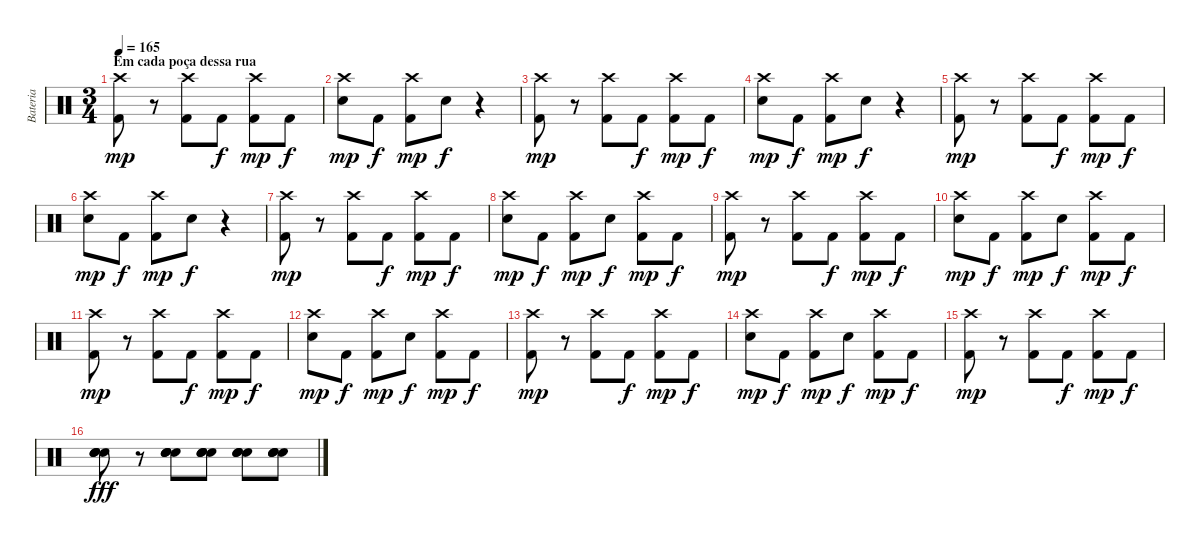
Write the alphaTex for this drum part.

\track ("Bateria" "Bateria") {instrument percussion}
\staff {score}
\articulation defaults
\ts (3 4)
\section ("" "Em cada poça dessa rua")
\tempo 165
\clef neutral
\ks c
("Crash high (hit)" "Kick (hit) 2").8{dy mp} r.8 ("Crash high (hit)" "Kick (hit) 2").8 "Kick (hit) 2".8{dy f} ("Crash high (hit)" "Kick (hit) 2").8{dy mp} "Kick (hit) 2".8{dy f} |
("Crash high (hit)" "Electric Snare (hit)").8{dy mp} "Kick (hit) 2".8{dy f} ("Crash high (hit)" "Kick (hit) 2").8{dy mp} "Electric Snare (hit)".8{dy f} r.4 |
("Crash high (hit)" "Kick (hit) 2").8{dy mp} r.8 ("Crash high (hit)" "Kick (hit) 2").8 "Kick (hit) 2".8{dy f} ("Crash high (hit)" "Kick (hit) 2").8{dy mp} "Kick (hit) 2".8{dy f} |
("Crash high (hit)" "Electric Snare (hit)").8{dy mp} "Kick (hit) 2".8{dy f} ("Crash high (hit)" "Kick (hit) 2").8{dy mp} "Electric Snare (hit)".8{dy f} r.4 |
("Crash high (hit)" "Kick (hit) 2").8{dy mp} r.8 ("Crash high (hit)" "Kick (hit) 2").8 "Kick (hit) 2".8{dy f} ("Crash high (hit)" "Kick (hit) 2").8{dy mp} "Kick (hit) 2".8{dy f} |
("Crash high (hit)" "Electric Snare (hit)").8{dy mp} "Kick (hit) 2".8{dy f} ("Crash high (hit)" "Kick (hit) 2").8{dy mp} "Electric Snare (hit)".8{dy f} r.4 |
("Crash high (hit)" "Kick (hit) 2").8{dy mp} r.8 ("Crash high (hit)" "Kick (hit) 2").8 "Kick (hit) 2".8{dy f} ("Crash high (hit)" "Kick (hit) 2").8{dy mp} "Kick (hit) 2".8{dy f} |
("Crash high (hit)" "Electric Snare (hit)").8{dy mp} "Kick (hit) 2".8{dy f} ("Crash high (hit)" "Kick (hit) 2").8{dy mp} "Electric Snare (hit)".8{dy f} ("Crash high (hit)" "Kick (hit) 2").8{dy mp} "Kick (hit) 2".8{dy f} |
("Crash high (hit)" "Kick (hit) 2").8{dy mp} r.8 ("Crash high (hit)" "Kick (hit) 2").8 "Kick (hit) 2".8{dy f} ("Crash high (hit)" "Kick (hit) 2").8{dy mp} "Kick (hit) 2".8{dy f} |
("Crash high (hit)" "Electric Snare (hit)").8{dy mp} "Kick (hit) 2".8{dy f} ("Crash high (hit)" "Kick (hit) 2").8{dy mp} "Electric Snare (hit)".8{dy f} ("Crash high (hit)" "Kick (hit) 2").8{dy mp} "Kick (hit) 2".8{dy f} |
("Crash high (hit)" "Kick (hit) 2").8{dy mp} r.8 ("Crash high (hit)" "Kick (hit) 2").8 "Kick (hit) 2".8{dy f} ("Crash high (hit)" "Kick (hit) 2").8{dy mp} "Kick (hit) 2".8{dy f} |
("Crash high (hit)" "Electric Snare (hit)").8{dy mp} "Kick (hit) 2".8{dy f} ("Crash high (hit)" "Kick (hit) 2").8{dy mp} "Electric Snare (hit)".8{dy f} ("Crash high (hit)" "Kick (hit) 2").8{dy mp} "Kick (hit) 2".8{dy f} |
("Crash high (hit)" "Kick (hit) 2").8{dy mp} r.8 ("Crash high (hit)" "Kick (hit) 2").8 "Kick (hit) 2".8{dy f} ("Crash high (hit)" "Kick (hit) 2").8{dy mp} "Kick (hit) 2".8{dy f} |
("Crash high (hit)" "Electric Snare (hit)").8{dy mp} "Kick (hit) 2".8{dy f} ("Crash high (hit)" "Kick (hit) 2").8{dy mp} "Electric Snare (hit)".8{dy f} ("Crash high (hit)" "Kick (hit) 2").8{dy mp} "Kick (hit) 2".8{dy f} |
("Crash high (hit)" "Kick (hit) 2").8{dy mp} r.8 ("Crash high (hit)" "Kick (hit) 2").8 "Kick (hit) 2".8{dy f} ("Crash high (hit)" "Kick (hit) 2").8{dy mp} "Kick (hit) 2".8{dy f} |
("Electric Snare (hit)" "Electric Snare (hit)" "Electric Snare (hit)" "Electric Snare (hit)").8{dy fff} r.8 ("Electric Snare (hit)" "Electric Snare (hit)" "Electric Snare (hit)" "Electric Snare (hit)").8 ("Electric Snare (hit)" "Electric Snare (hit)" "Electric Snare (hit)" "Electric Snare (hit)").8 ("Electric Snare (hit)" "Electric Snare (hit)" "Electric Snare (hit)" "Electric Snare (hit)").8 ("Electric Snare (hit)" "Electric Snare (hit)" "Electric Snare (hit)" "Electric Snare (hit)").8
